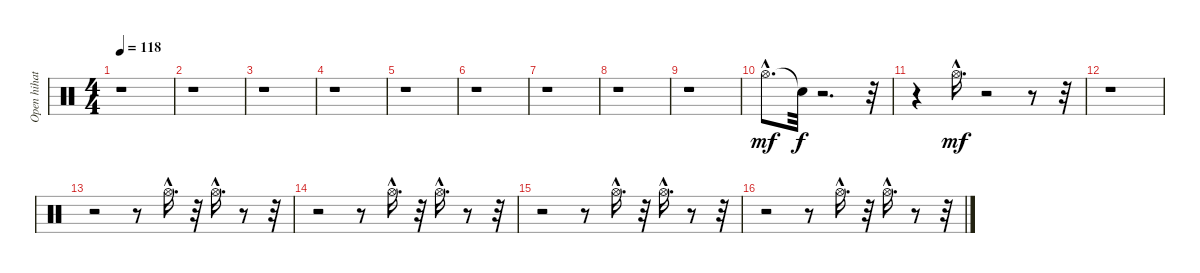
\track ("Open hihat          " "Open hihat") {instrument percussion}
\staff {score}
\articulation defaults
\ts (4 4)
\tempo 118
\clef neutral
\ks c
r.1{dy mf} |
r.1 |
r.1 |
r.1 |
r.1 |
r.1 |
r.1 |
r.1 |
r.1 |
"Hi-Hat (open)"{hac}.8{d} "Snare (hit)"{t}.32{dy f} r.2{d} r.32 |
r.4 "Hi-Hat (open)"{hac}.16{d dy mf} r.2 r.8 r.32 |
r.1 |
r.2 r.8 "Hi-Hat (open)"{hac}.16{d} r.32 "Hi-Hat (open)"{hac}.16{d} r.8 r.32 |
r.2 r.8 "Hi-Hat (open)"{hac}.16{d} r.32 "Hi-Hat (open)"{hac}.16{d} r.8 r.32 |
r.2 r.8 "Hi-Hat (open)"{hac}.16{d} r.32 "Hi-Hat (open)"{hac}.16{d} r.8 r.32 |
r.2 r.8 "Hi-Hat (open)"{hac}.16{d} r.32 "Hi-Hat (open)"{hac}.16{d} r.8 r.32
